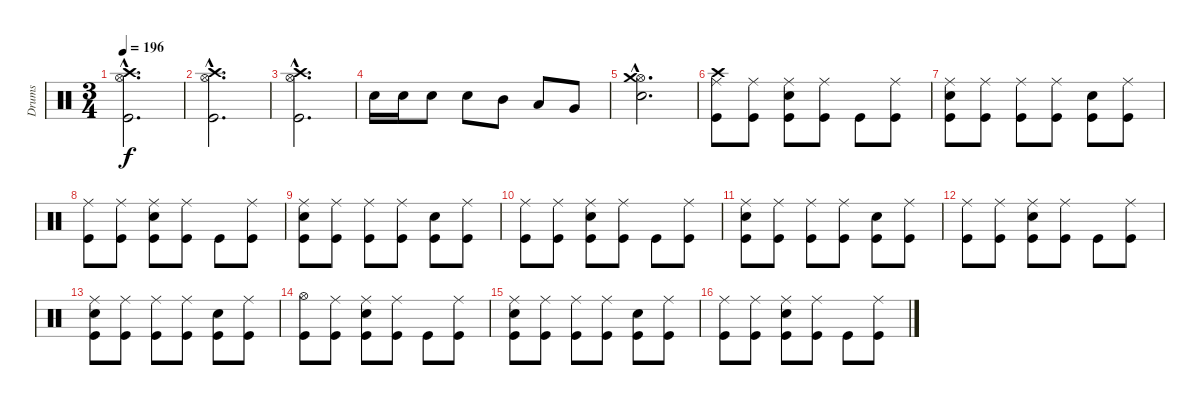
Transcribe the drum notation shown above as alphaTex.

\track ("Drums" "Drums") {instrument percussion}
\staff {score}
\articulation defaults
\ts (3 4)
\tempo 196
\clef neutral
\ks c
("Crash high (hit)"{hac} "Hi-Hat (open)"{hac} "Kick (hit)"{hac}).2{d dy f} |
("Crash high (hit)"{hac} "Hi-Hat (open)"{hac} "Kick (hit)"{hac}).2{d} |
("Crash high (hit)"{hac} "Hi-Hat (open)"{hac} "Kick (hit)"{hac}).2{d} |
"Electric Snare (hit)".16 "Electric Snare (hit)".16 "Electric Snare (hit)".8 "Electric Snare (hit)".8 "Mid Tom (hit)".8 "Low Tom (hit)".8 "Very Low Tom (hit)".8 |
("Hi-Hat (open)"{hac} "Crash medium (hit)"{hac} "Electric Snare (hit)"{hac}).2{d} |
("Crash high (hit)" "Ride (middle)" "Kick (hit)").8 ("Ride (middle)" "Kick (hit)").8 ("Ride (middle)" "Electric Snare (hit)" "Kick (hit)").8 ("Ride (middle)" "Kick (hit)").8 "Kick (hit)".8 ("Ride (middle)" "Kick (hit)").8 |
("Ride (middle)" "Electric Snare (hit)" "Kick (hit)").8 ("Ride (middle)" "Kick (hit)").8 ("Ride (middle)" "Kick (hit)").8 ("Ride (middle)" "Kick (hit)").8 ("Electric Snare (hit)" "Kick (hit)").8 ("Ride (middle)" "Kick (hit)").8 |
("Ride (middle)" "Kick (hit)").8 ("Ride (middle)" "Kick (hit)").8 ("Ride (middle)" "Electric Snare (hit)" "Kick (hit)").8 ("Ride (middle)" "Kick (hit)").8 "Kick (hit)".8 ("Ride (middle)" "Kick (hit)").8 |
("Ride (middle)" "Electric Snare (hit)" "Kick (hit)").8 ("Ride (middle)" "Kick (hit)").8 ("Ride (middle)" "Kick (hit)").8 ("Ride (middle)" "Kick (hit)").8 ("Electric Snare (hit)" "Kick (hit)").8 ("Ride (middle)" "Kick (hit)").8 |
("Ride (middle)" "Kick (hit)").8 ("Ride (middle)" "Kick (hit)").8 ("Ride (middle)" "Electric Snare (hit)" "Kick (hit)").8 ("Ride (middle)" "Kick (hit)").8 "Kick (hit)".8 ("Ride (middle)" "Kick (hit)").8 |
("Ride (middle)" "Electric Snare (hit)" "Kick (hit)").8 ("Ride (middle)" "Kick (hit)").8 ("Ride (middle)" "Kick (hit)").8 ("Ride (middle)" "Kick (hit)").8 ("Electric Snare (hit)" "Kick (hit)").8 ("Ride (middle)" "Kick (hit)").8 |
("Ride (middle)" "Kick (hit)").8 ("Ride (middle)" "Kick (hit)").8 ("Ride (middle)" "Electric Snare (hit)" "Kick (hit)").8 ("Ride (middle)" "Kick (hit)").8 "Kick (hit)".8 ("Ride (middle)" "Kick (hit)").8 |
("Ride (middle)" "Electric Snare (hit)" "Kick (hit)").8 ("Ride (middle)" "Kick (hit)").8 ("Ride (middle)" "Kick (hit)").8 ("Ride (middle)" "Kick (hit)").8 ("Electric Snare (hit)" "Kick (hit)").8 ("Ride (middle)" "Kick (hit)").8 |
("Hi-Hat (open)" "Kick (hit)").8 ("Ride (middle)" "Kick (hit)").8 ("Ride (middle)" "Electric Snare (hit)" "Kick (hit)").8 ("Ride (middle)" "Kick (hit)").8 "Kick (hit)".8 ("Ride (middle)" "Kick (hit)").8 |
("Ride (middle)" "Electric Snare (hit)" "Kick (hit)").8 ("Ride (middle)" "Kick (hit)").8 ("Ride (middle)" "Kick (hit)").8 ("Ride (middle)" "Kick (hit)").8 ("Electric Snare (hit)" "Kick (hit)").8 ("Ride (middle)" "Kick (hit)").8 |
("Ride (middle)" "Kick (hit)").8 ("Ride (middle)" "Kick (hit)").8 ("Ride (middle)" "Electric Snare (hit)" "Kick (hit)").8 ("Ride (middle)" "Kick (hit)").8 "Kick (hit)".8 ("Ride (middle)" "Kick (hit)").8
